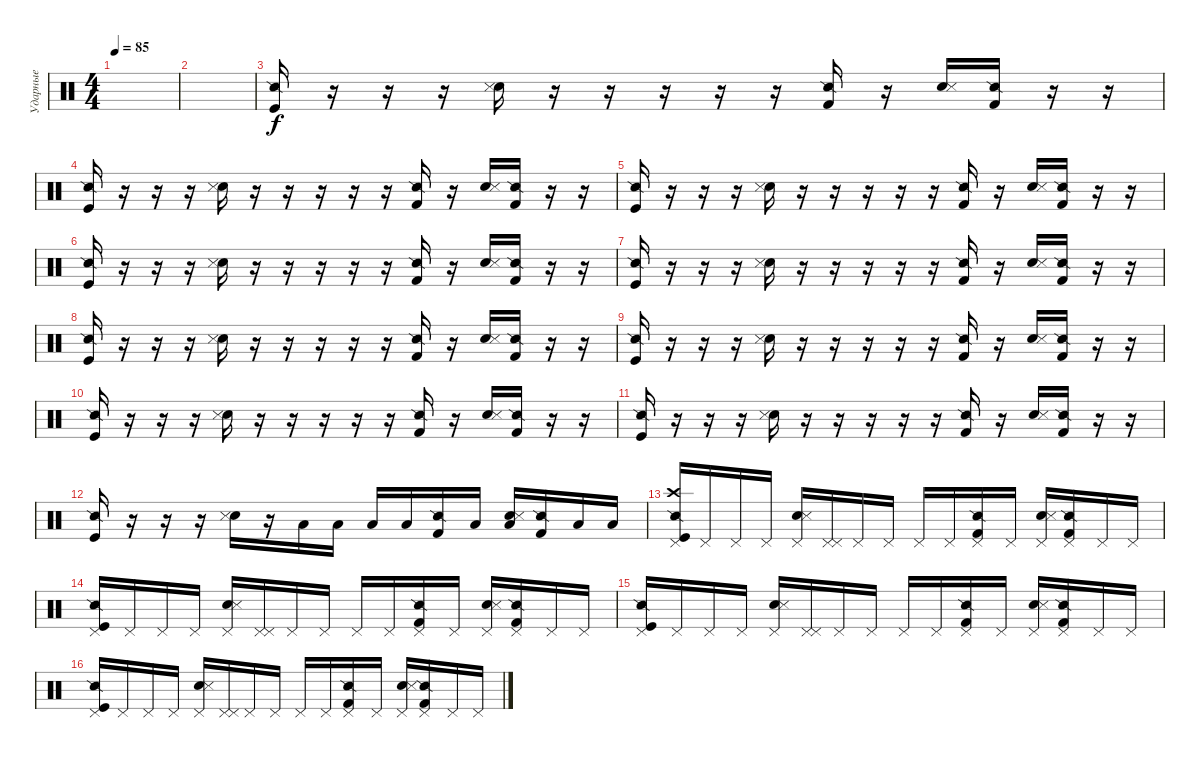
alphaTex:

\track ("Ударные" "Ударные") {instrument percussion}
\staff {score}
\articulation defaults
\ts (4 4)
\tempo 85
\clef neutral
\ks c
|
|
("Kick (hit)" "Snare (side stick) 2").16 r.16 r.16 r.16 ("Snare (hit) 2" "Snare (side stick) 3").16 r.16 r.16 r.16 r.16 r.16 ("Kick (hit) 2" "Snare (side stick) 2").16 r.16 ("Snare (hit) 2" "Snare (side stick) 3").16 ("Kick (hit) 2" "Snare (side stick) 2").16 r.16 r.16 |
("Kick (hit)" "Snare (side stick) 2").16 r.16 r.16 r.16 ("Snare (hit) 2" "Snare (side stick) 3").16 r.16 r.16 r.16 r.16 r.16 ("Kick (hit) 2" "Snare (side stick) 2").16 r.16 ("Snare (hit) 2" "Snare (side stick) 3").16 ("Kick (hit) 2" "Snare (side stick) 2").16 r.16 r.16 |
("Kick (hit)" "Snare (side stick) 2").16 r.16 r.16 r.16 ("Snare (hit) 2" "Snare (side stick) 3").16 r.16 r.16 r.16 r.16 r.16 ("Kick (hit) 2" "Snare (side stick) 2").16 r.16 ("Snare (hit) 2" "Snare (side stick) 3").16 ("Kick (hit) 2" "Snare (side stick) 2").16 r.16 r.16 |
("Kick (hit)" "Snare (side stick) 2").16 r.16 r.16 r.16 ("Snare (hit) 2" "Snare (side stick) 3").16 r.16 r.16 r.16 r.16 r.16 ("Kick (hit) 2" "Snare (side stick) 2").16 r.16 ("Snare (hit) 2" "Snare (side stick) 3").16 ("Kick (hit) 2" "Snare (side stick) 2").16 r.16 r.16 |
("Kick (hit)" "Snare (side stick) 2").16 r.16 r.16 r.16 ("Snare (hit) 2" "Snare (side stick) 3").16 r.16 r.16 r.16 r.16 r.16 ("Kick (hit) 2" "Snare (side stick) 2").16 r.16 ("Snare (hit) 2" "Snare (side stick) 3").16 ("Kick (hit) 2" "Snare (side stick) 2").16 r.16 r.16 |
("Kick (hit)" "Snare (side stick) 2").16 r.16 r.16 r.16 ("Snare (hit) 2" "Snare (side stick) 3").16 r.16 r.16 r.16 r.16 r.16 ("Kick (hit) 2" "Snare (side stick) 2").16 r.16 ("Snare (hit) 2" "Snare (side stick) 3").16 ("Kick (hit) 2" "Snare (side stick) 2").16 r.16 r.16 |
("Kick (hit)" "Snare (side stick) 2").16 r.16 r.16 r.16 ("Snare (hit) 2" "Snare (side stick) 3").16 r.16 r.16 r.16 r.16 r.16 ("Kick (hit) 2" "Snare (side stick) 2").16 r.16 ("Snare (hit) 2" "Snare (side stick) 3").16 ("Kick (hit) 2" "Snare (side stick) 2").16 r.16 r.16 |
("Kick (hit)" "Snare (side stick) 2").16 r.16 r.16 r.16 ("Snare (hit) 2" "Snare (side stick) 3").16 r.16 r.16 r.16 r.16 r.16 ("Kick (hit) 2" "Snare (side stick) 2").16 r.16 ("Snare (hit) 2" "Snare (side stick) 3").16 ("Kick (hit) 2" "Snare (side stick) 2").16 r.16 r.16 |
("Kick (hit)" "Snare (side stick) 2").16 r.16 r.16 r.16 ("Snare (hit) 2" "Snare (side stick) 3").16 r.16 r.16 r.16 r.16 r.16 ("Kick (hit) 2" "Snare (side stick) 2").16 r.16 ("Snare (hit) 2" "Snare (side stick) 3").16 ("Kick (hit) 2" "Snare (side stick) 2").16 r.16 r.16 |
("Kick (hit)" "Snare (side stick) 2").16 r.16 r.16 r.16 ("Snare (hit) 2" "Snare (side stick) 3").16 r.16 "Low Tom (hit)".16 "Low Tom (hit)".16 "Low Tom (hit)".16 "Low Tom (hit)".16 ("Kick (hit) 2" "Snare (side stick) 2").16 "Low Tom (hit)".16 ("Low Tom (hit)" "Snare (hit) 2" "Snare (side stick) 3").16 ("Kick (hit) 2" "Snare (side stick) 2").16 "Low Tom (hit)".16 "Low Tom (hit)".16 |
("Crash high (hit)" "Kick (hit)" "Pedal Hi-Hat (hit)" "Snare (side stick) 2").16 "Pedal Hi-Hat (hit)".16 "Pedal Hi-Hat (hit)".16 "Pedal Hi-Hat (hit)".16 ("Snare (hit) 2" "Pedal Hi-Hat (hit)" "Snare (side stick) 3").16 ("Pedal Hi-Hat (hit)" "Pedal Hi-Hat (hit)").16 "Pedal Hi-Hat (hit)".16 "Pedal Hi-Hat (hit)".16 "Pedal Hi-Hat (hit)".16 "Pedal Hi-Hat (hit)".16 ("Kick (hit) 2" "Pedal Hi-Hat (hit)" "Snare (side stick) 2").16 "Pedal Hi-Hat (hit)".16 ("Snare (hit) 2" "Pedal Hi-Hat (hit)" "Snare (side stick) 3").16 ("Kick (hit) 2" "Pedal Hi-Hat (hit)" "Snare (side stick) 2").16 "Pedal Hi-Hat (hit)".16 "Pedal Hi-Hat (hit)".16 |
("Kick (hit)" "Pedal Hi-Hat (hit)" "Snare (side stick) 2").16 "Pedal Hi-Hat (hit)".16 "Pedal Hi-Hat (hit)".16 "Pedal Hi-Hat (hit)".16 ("Snare (hit) 2" "Pedal Hi-Hat (hit)" "Snare (side stick) 3").16 ("Pedal Hi-Hat (hit)" "Pedal Hi-Hat (hit)").16 "Pedal Hi-Hat (hit)".16 "Pedal Hi-Hat (hit)".16 "Pedal Hi-Hat (hit)".16 "Pedal Hi-Hat (hit)".16 ("Kick (hit) 2" "Pedal Hi-Hat (hit)" "Snare (side stick) 2").16 "Pedal Hi-Hat (hit)".16 ("Snare (hit) 2" "Pedal Hi-Hat (hit)" "Snare (side stick) 3").16 ("Kick (hit) 2" "Pedal Hi-Hat (hit)" "Snare (side stick) 2").16 "Pedal Hi-Hat (hit)".16 "Pedal Hi-Hat (hit)".16 |
("Kick (hit)" "Pedal Hi-Hat (hit)" "Snare (side stick) 2").16 "Pedal Hi-Hat (hit)".16 "Pedal Hi-Hat (hit)".16 "Pedal Hi-Hat (hit)".16 ("Snare (hit) 2" "Pedal Hi-Hat (hit)" "Snare (side stick) 3").16 ("Pedal Hi-Hat (hit)" "Pedal Hi-Hat (hit)").16 "Pedal Hi-Hat (hit)".16 "Pedal Hi-Hat (hit)".16 "Pedal Hi-Hat (hit)".16 "Pedal Hi-Hat (hit)".16 ("Kick (hit) 2" "Pedal Hi-Hat (hit)" "Snare (side stick) 2").16 "Pedal Hi-Hat (hit)".16 ("Snare (hit) 2" "Pedal Hi-Hat (hit)" "Snare (side stick) 3").16 ("Kick (hit) 2" "Pedal Hi-Hat (hit)" "Snare (side stick) 2").16 "Pedal Hi-Hat (hit)".16 "Pedal Hi-Hat (hit)".16 |
("Kick (hit)" "Pedal Hi-Hat (hit)" "Snare (side stick) 2").16 "Pedal Hi-Hat (hit)".16 "Pedal Hi-Hat (hit)".16 "Pedal Hi-Hat (hit)".16 ("Snare (hit) 2" "Pedal Hi-Hat (hit)" "Snare (side stick) 3").16 ("Pedal Hi-Hat (hit)" "Pedal Hi-Hat (hit)").16 "Pedal Hi-Hat (hit)".16 "Pedal Hi-Hat (hit)".16 "Pedal Hi-Hat (hit)".16 "Pedal Hi-Hat (hit)".16 ("Kick (hit) 2" "Pedal Hi-Hat (hit)" "Snare (side stick) 2").16 "Pedal Hi-Hat (hit)".16 ("Snare (hit) 2" "Pedal Hi-Hat (hit)" "Snare (side stick) 3").16 ("Kick (hit) 2" "Pedal Hi-Hat (hit)" "Snare (side stick) 2").16 "Pedal Hi-Hat (hit)".16 "Pedal Hi-Hat (hit)".16
